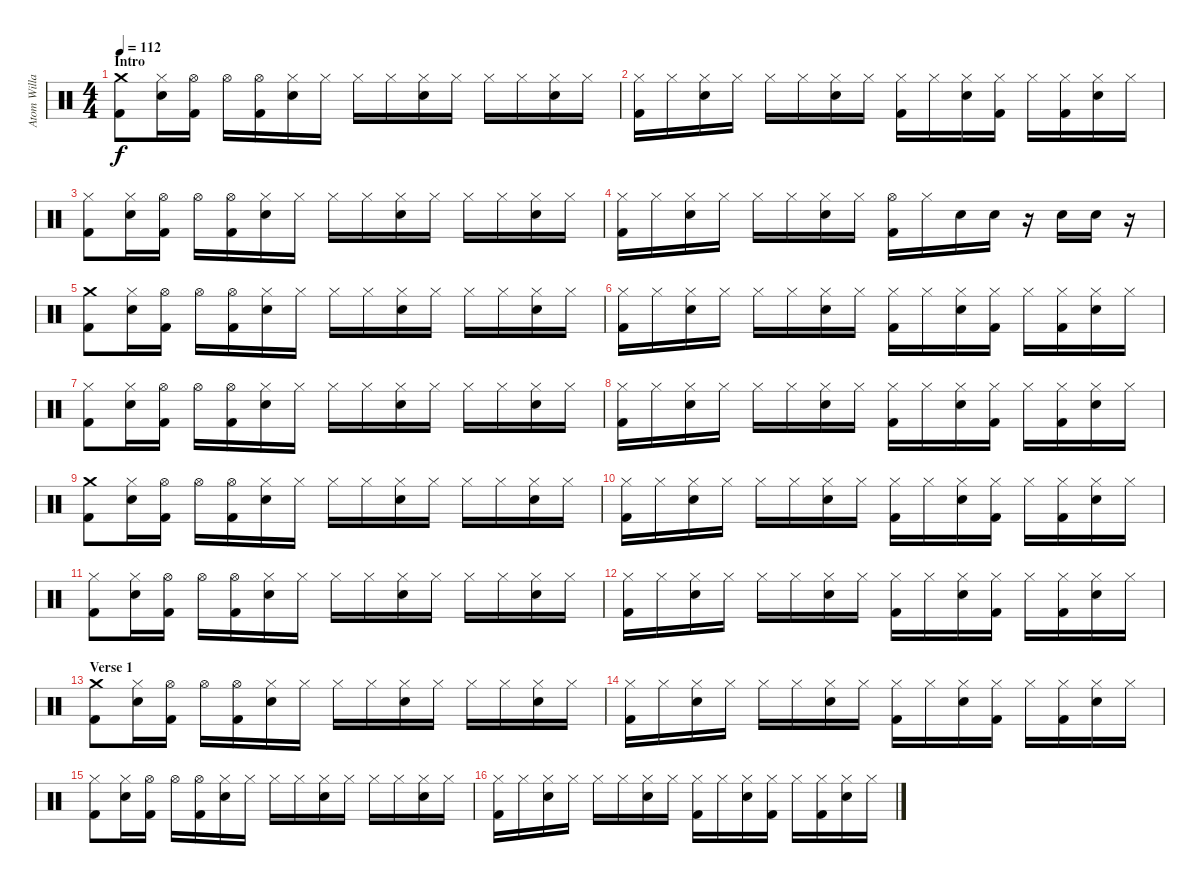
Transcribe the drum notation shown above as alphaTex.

\track ("Atom Willard Drums" "Atom Willa") {instrument percussion}
\staff {score}
\articulation defaults
\ts (4 4)
\section ("" "Intro")
\tempo 112
\clef neutral
\ks c
("Crash medium (hit)" "Kick (hit) 2").8{dy f} ("Hi-Hat (closed)" "Electric Snare (hit)").16 ("Hi-Hat (open)" "Kick (hit) 2").16 "Hi-Hat (open)".16 ("Hi-Hat (open)" "Kick (hit) 2").16 ("Hi-Hat (closed)" "Electric Snare (hit)").16 "Hi-Hat (closed)".16 "Hi-Hat (closed)".16 "Hi-Hat (closed)".16 ("Hi-Hat (closed)" "Electric Snare (hit)").16 "Hi-Hat (closed)".16 "Hi-Hat (closed)".16 "Hi-Hat (closed)".16 ("Hi-Hat (closed)" "Electric Snare (hit)").16 "Hi-Hat (closed)".16 |
("Hi-Hat (closed)" "Kick (hit) 2").16 "Hi-Hat (closed)".16 ("Hi-Hat (closed)" "Electric Snare (hit)").16 "Hi-Hat (closed)".16 "Hi-Hat (closed)".16 "Hi-Hat (closed)".16 ("Hi-Hat (closed)" "Electric Snare (hit)").16 "Hi-Hat (closed)".16 ("Hi-Hat (closed)" "Kick (hit) 2").16 "Hi-Hat (closed)".16 ("Hi-Hat (closed)" "Electric Snare (hit)").16 ("Hi-Hat (closed)" "Kick (hit) 2").16 "Hi-Hat (closed)".16 ("Hi-Hat (closed)" "Kick (hit) 2").16 ("Hi-Hat (closed)" "Electric Snare (hit)").16 "Hi-Hat (closed)".16 |
("Hi-Hat (closed)" "Kick (hit) 2").8 ("Hi-Hat (closed)" "Electric Snare (hit)").16 ("Hi-Hat (open)" "Kick (hit) 2").16 "Hi-Hat (open)".16 ("Hi-Hat (open)" "Kick (hit) 2").16 ("Hi-Hat (closed)" "Electric Snare (hit)").16 "Hi-Hat (closed)".16 "Hi-Hat (closed)".16 "Hi-Hat (closed)".16 ("Hi-Hat (closed)" "Electric Snare (hit)").16 "Hi-Hat (closed)".16 "Hi-Hat (closed)".16 "Hi-Hat (closed)".16 ("Hi-Hat (closed)" "Electric Snare (hit)").16 "Hi-Hat (closed)".16 |
("Hi-Hat (closed)" "Kick (hit) 2").16 "Hi-Hat (closed)".16 ("Hi-Hat (closed)" "Electric Snare (hit)").16 "Hi-Hat (closed)".16 "Hi-Hat (closed)".16 "Hi-Hat (closed)".16 ("Hi-Hat (closed)" "Electric Snare (hit)").16 "Hi-Hat (closed)".16 ("Hi-Hat (open)" "Kick (hit) 2").16 "Hi-Hat (closed)".16 "Electric Snare (hit)".16 "Electric Snare (hit)".16 r.16 "Electric Snare (hit)".16 "Electric Snare (hit)".16 r.16 |
("Crash medium (hit)" "Kick (hit) 2").8 ("Hi-Hat (closed)" "Electric Snare (hit)").16 ("Hi-Hat (open)" "Kick (hit) 2").16 "Hi-Hat (open)".16 ("Hi-Hat (open)" "Kick (hit) 2").16 ("Hi-Hat (closed)" "Electric Snare (hit)").16 "Hi-Hat (closed)".16 "Hi-Hat (closed)".16 "Hi-Hat (closed)".16 ("Hi-Hat (closed)" "Electric Snare (hit)").16 "Hi-Hat (closed)".16 "Hi-Hat (closed)".16 "Hi-Hat (closed)".16 ("Hi-Hat (closed)" "Electric Snare (hit)").16 "Hi-Hat (closed)".16 |
("Hi-Hat (closed)" "Kick (hit) 2").16 "Hi-Hat (closed)".16 ("Hi-Hat (closed)" "Electric Snare (hit)").16 "Hi-Hat (closed)".16 "Hi-Hat (closed)".16 "Hi-Hat (closed)".16 ("Hi-Hat (closed)" "Electric Snare (hit)").16 "Hi-Hat (closed)".16 ("Hi-Hat (closed)" "Kick (hit) 2").16 "Hi-Hat (closed)".16 ("Hi-Hat (closed)" "Electric Snare (hit)").16 ("Hi-Hat (closed)" "Kick (hit) 2").16 "Hi-Hat (closed)".16 ("Hi-Hat (closed)" "Kick (hit) 2").16 ("Hi-Hat (closed)" "Electric Snare (hit)").16 "Hi-Hat (closed)".16 |
("Hi-Hat (closed)" "Kick (hit) 2").8 ("Hi-Hat (closed)" "Electric Snare (hit)").16 ("Hi-Hat (open)" "Kick (hit) 2").16 "Hi-Hat (open)".16 ("Hi-Hat (open)" "Kick (hit) 2").16 ("Hi-Hat (closed)" "Electric Snare (hit)").16 "Hi-Hat (closed)".16 "Hi-Hat (closed)".16 "Hi-Hat (closed)".16 ("Hi-Hat (closed)" "Electric Snare (hit)").16 "Hi-Hat (closed)".16 "Hi-Hat (closed)".16 "Hi-Hat (closed)".16 ("Hi-Hat (closed)" "Electric Snare (hit)").16 "Hi-Hat (closed)".16 |
("Hi-Hat (closed)" "Kick (hit) 2").16 "Hi-Hat (closed)".16 ("Hi-Hat (closed)" "Electric Snare (hit)").16 "Hi-Hat (closed)".16 "Hi-Hat (closed)".16 "Hi-Hat (closed)".16 ("Hi-Hat (closed)" "Electric Snare (hit)").16 "Hi-Hat (closed)".16 ("Hi-Hat (closed)" "Kick (hit) 2").16 "Hi-Hat (closed)".16 ("Hi-Hat (closed)" "Electric Snare (hit)").16 ("Hi-Hat (closed)" "Kick (hit) 2").16 "Hi-Hat (closed)".16 ("Hi-Hat (closed)" "Kick (hit) 2").16 ("Hi-Hat (closed)" "Electric Snare (hit)").16 "Hi-Hat (closed)".16 |
("Crash medium (hit)" "Kick (hit) 2").8 ("Hi-Hat (closed)" "Electric Snare (hit)").16 ("Hi-Hat (open)" "Kick (hit) 2").16 "Hi-Hat (open)".16 ("Hi-Hat (open)" "Kick (hit) 2").16 ("Hi-Hat (closed)" "Electric Snare (hit)").16 "Hi-Hat (closed)".16 "Hi-Hat (closed)".16 "Hi-Hat (closed)".16 ("Hi-Hat (closed)" "Electric Snare (hit)").16 "Hi-Hat (closed)".16 "Hi-Hat (closed)".16 "Hi-Hat (closed)".16 ("Hi-Hat (closed)" "Electric Snare (hit)").16 "Hi-Hat (closed)".16 |
("Hi-Hat (closed)" "Kick (hit) 2").16 "Hi-Hat (closed)".16 ("Hi-Hat (closed)" "Electric Snare (hit)").16 "Hi-Hat (closed)".16 "Hi-Hat (closed)".16 "Hi-Hat (closed)".16 ("Hi-Hat (closed)" "Electric Snare (hit)").16 "Hi-Hat (closed)".16 ("Hi-Hat (closed)" "Kick (hit) 2").16 "Hi-Hat (closed)".16 ("Hi-Hat (closed)" "Electric Snare (hit)").16 ("Hi-Hat (closed)" "Kick (hit) 2").16 "Hi-Hat (closed)".16 ("Hi-Hat (closed)" "Kick (hit) 2").16 ("Hi-Hat (closed)" "Electric Snare (hit)").16 "Hi-Hat (closed)".16 |
("Hi-Hat (closed)" "Kick (hit) 2").8 ("Hi-Hat (closed)" "Electric Snare (hit)").16 ("Hi-Hat (open)" "Kick (hit) 2").16 "Hi-Hat (open)".16 ("Hi-Hat (open)" "Kick (hit) 2").16 ("Hi-Hat (closed)" "Electric Snare (hit)").16 "Hi-Hat (closed)".16 "Hi-Hat (closed)".16 "Hi-Hat (closed)".16 ("Hi-Hat (closed)" "Electric Snare (hit)").16 "Hi-Hat (closed)".16 "Hi-Hat (closed)".16 "Hi-Hat (closed)".16 ("Hi-Hat (closed)" "Electric Snare (hit)").16 "Hi-Hat (closed)".16 |
("Hi-Hat (closed)" "Kick (hit) 2").16 "Hi-Hat (closed)".16 ("Hi-Hat (closed)" "Electric Snare (hit)").16 "Hi-Hat (closed)".16 "Hi-Hat (closed)".16 "Hi-Hat (closed)".16 ("Hi-Hat (closed)" "Electric Snare (hit)").16 "Hi-Hat (closed)".16 ("Hi-Hat (closed)" "Kick (hit) 2").16 "Hi-Hat (closed)".16 ("Hi-Hat (closed)" "Electric Snare (hit)").16 ("Hi-Hat (closed)" "Kick (hit) 2").16 "Hi-Hat (closed)".16 ("Hi-Hat (closed)" "Kick (hit) 2").16 ("Hi-Hat (closed)" "Electric Snare (hit)").16 "Hi-Hat (closed)".16 |
\section ("" "Verse 1")
("Crash medium (hit)" "Kick (hit) 2").8 ("Hi-Hat (closed)" "Electric Snare (hit)").16 ("Hi-Hat (open)" "Kick (hit) 2").16 "Hi-Hat (open)".16 ("Hi-Hat (open)" "Kick (hit) 2").16 ("Hi-Hat (closed)" "Electric Snare (hit)").16 "Hi-Hat (closed)".16 "Hi-Hat (closed)".16 "Hi-Hat (closed)".16 ("Hi-Hat (closed)" "Electric Snare (hit)").16 "Hi-Hat (closed)".16 "Hi-Hat (closed)".16 "Hi-Hat (closed)".16 ("Hi-Hat (closed)" "Electric Snare (hit)").16 "Hi-Hat (closed)".16 |
("Hi-Hat (closed)" "Kick (hit) 2").16 "Hi-Hat (closed)".16 ("Hi-Hat (closed)" "Electric Snare (hit)").16 "Hi-Hat (closed)".16 "Hi-Hat (closed)".16 "Hi-Hat (closed)".16 ("Hi-Hat (closed)" "Electric Snare (hit)").16 "Hi-Hat (closed)".16 ("Hi-Hat (closed)" "Kick (hit) 2").16 "Hi-Hat (closed)".16 ("Hi-Hat (closed)" "Electric Snare (hit)").16 ("Hi-Hat (closed)" "Kick (hit) 2").16 "Hi-Hat (closed)".16 ("Hi-Hat (closed)" "Kick (hit) 2").16 ("Hi-Hat (closed)" "Electric Snare (hit)").16 "Hi-Hat (closed)".16 |
("Hi-Hat (closed)" "Kick (hit) 2").8 ("Hi-Hat (closed)" "Electric Snare (hit)").16 ("Hi-Hat (open)" "Kick (hit) 2").16 "Hi-Hat (open)".16 ("Hi-Hat (open)" "Kick (hit) 2").16 ("Hi-Hat (closed)" "Electric Snare (hit)").16 "Hi-Hat (closed)".16 "Hi-Hat (closed)".16 "Hi-Hat (closed)".16 ("Hi-Hat (closed)" "Electric Snare (hit)").16 "Hi-Hat (closed)".16 "Hi-Hat (closed)".16 "Hi-Hat (closed)".16 ("Hi-Hat (closed)" "Electric Snare (hit)").16 "Hi-Hat (closed)".16 |
("Hi-Hat (closed)" "Kick (hit) 2").16 "Hi-Hat (closed)".16 ("Hi-Hat (closed)" "Electric Snare (hit)").16 "Hi-Hat (closed)".16 "Hi-Hat (closed)".16 "Hi-Hat (closed)".16 ("Hi-Hat (closed)" "Electric Snare (hit)").16 "Hi-Hat (closed)".16 ("Hi-Hat (closed)" "Kick (hit) 2").16 "Hi-Hat (closed)".16 ("Hi-Hat (closed)" "Electric Snare (hit)").16 ("Hi-Hat (closed)" "Kick (hit) 2").16 "Hi-Hat (closed)".16 ("Hi-Hat (closed)" "Kick (hit) 2").16 ("Hi-Hat (closed)" "Electric Snare (hit)").16 "Hi-Hat (closed)".16
